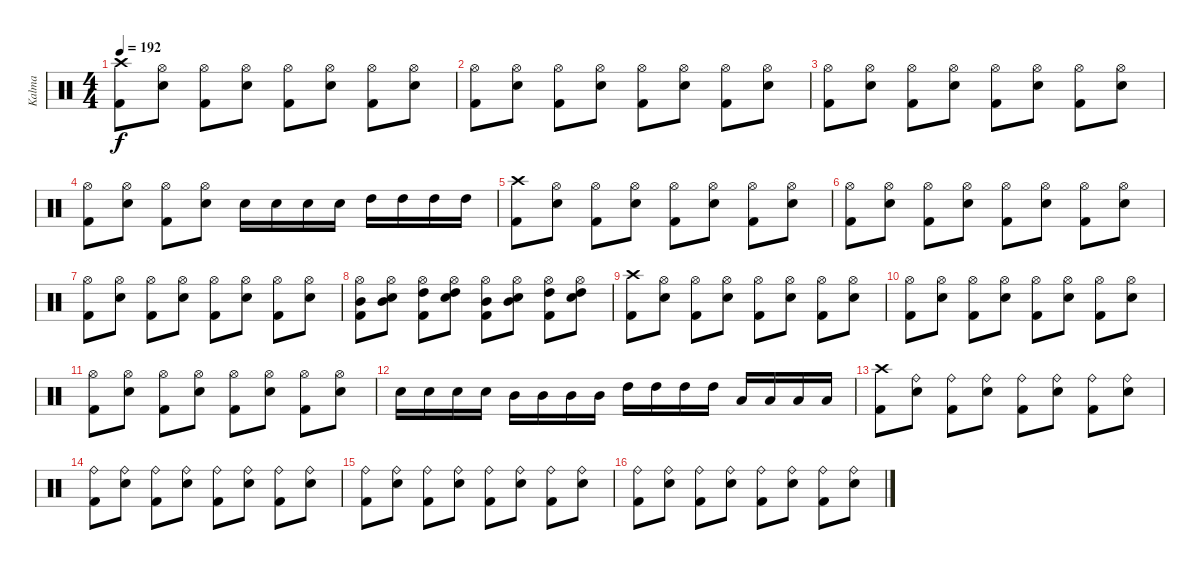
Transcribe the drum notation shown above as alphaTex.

\track ("Kalma" "Kalma") {instrument percussion}
\staff {score}
\articulation defaults
\ts (4 4)
\tempo 192
\clef neutral
\ks c
("Crash high (hit)" "Kick (hit) 2").8{dy f} ("Hi-Hat (open)" "Snare (hit) 2").8 ("Hi-Hat (open)" "Kick (hit) 2").8 ("Hi-Hat (open)" "Snare (hit) 2").8 ("Hi-Hat (open)" "Kick (hit) 2").8 ("Hi-Hat (open)" "Snare (hit) 2").8 ("Hi-Hat (open)" "Kick (hit) 2").8 ("Hi-Hat (open)" "Snare (hit) 2").8 |
("Hi-Hat (open)" "Kick (hit) 2").8 ("Hi-Hat (open)" "Snare (hit) 2").8 ("Hi-Hat (open)" "Kick (hit) 2").8 ("Hi-Hat (open)" "Snare (hit) 2").8 ("Hi-Hat (open)" "Kick (hit) 2").8 ("Hi-Hat (open)" "Snare (hit) 2").8 ("Hi-Hat (open)" "Kick (hit) 2").8 ("Hi-Hat (open)" "Snare (hit) 2").8 |
("Hi-Hat (open)" "Kick (hit) 2").8 ("Hi-Hat (open)" "Snare (hit) 2").8 ("Hi-Hat (open)" "Kick (hit) 2").8 ("Hi-Hat (open)" "Snare (hit) 2").8 ("Hi-Hat (open)" "Kick (hit) 2").8 ("Hi-Hat (open)" "Snare (hit) 2").8 ("Hi-Hat (open)" "Kick (hit) 2").8 ("Hi-Hat (open)" "Snare (hit) 2").8 |
("Hi-Hat (open)" "Kick (hit) 2").8 ("Hi-Hat (open)" "Snare (hit) 2").8 ("Hi-Hat (open)" "Kick (hit) 2").8 ("Hi-Hat (open)" "Snare (hit) 2").8 "Snare (hit) 2".16 "Snare (hit) 2".16 "Snare (hit) 2".16 "Snare (hit) 2".16 "High Tom (hit)".16 "High Tom (hit)".16 "High Tom (hit)".16 "High Tom (hit)".16 |
("Crash high (hit)" "Kick (hit) 2").8 ("Hi-Hat (open)" "Snare (hit) 2").8 ("Hi-Hat (open)" "Kick (hit) 2").8 ("Hi-Hat (open)" "Snare (hit) 2").8 ("Hi-Hat (open)" "Kick (hit) 2").8 ("Hi-Hat (open)" "Snare (hit) 2").8 ("Hi-Hat (open)" "Kick (hit) 2").8 ("Hi-Hat (open)" "Snare (hit) 2").8 |
("Hi-Hat (open)" "Kick (hit) 2").8 ("Hi-Hat (open)" "Snare (hit) 2").8 ("Hi-Hat (open)" "Kick (hit) 2").8 ("Hi-Hat (open)" "Snare (hit) 2").8 ("Hi-Hat (open)" "Kick (hit) 2").8 ("Hi-Hat (open)" "Snare (hit) 2").8 ("Hi-Hat (open)" "Kick (hit) 2").8 ("Hi-Hat (open)" "Snare (hit) 2").8 |
("Hi-Hat (open)" "Kick (hit) 2").8 ("Hi-Hat (open)" "Snare (hit) 2").8 ("Hi-Hat (open)" "Kick (hit) 2").8 ("Hi-Hat (open)" "Snare (hit) 2").8 ("Hi-Hat (open)" "Kick (hit) 2").8 ("Hi-Hat (open)" "Snare (hit) 2").8 ("Hi-Hat (open)" "Kick (hit) 2").8 ("Hi-Hat (open)" "Snare (hit) 2").8 |
("Mid Tom (hit)" "Hi-Hat (open)" "Kick (hit) 2").8 ("Mid Tom (hit)" "Hi-Hat (open)" "Snare (hit) 2").8 ("High Tom (hit)" "Hi-Hat (open)" "Kick (hit) 2").8 ("High Tom (hit)" "Hi-Hat (open)" "Snare (hit) 2").8 ("Mid Tom (hit)" "Hi-Hat (open)" "Kick (hit) 2").8 ("Mid Tom (hit)" "Hi-Hat (open)" "Snare (hit) 2").8 ("High Tom (hit)" "Hi-Hat (open)" "Kick (hit) 2").8 ("High Tom (hit)" "Hi-Hat (open)" "Snare (hit) 2").8 |
("Crash high (hit)" "Kick (hit) 2").8 ("Hi-Hat (open)" "Snare (hit) 2").8 ("Hi-Hat (open)" "Kick (hit) 2").8 ("Hi-Hat (open)" "Snare (hit) 2").8 ("Hi-Hat (open)" "Kick (hit) 2").8 ("Hi-Hat (open)" "Snare (hit) 2").8 ("Hi-Hat (open)" "Kick (hit) 2").8 ("Hi-Hat (open)" "Snare (hit) 2").8 |
("Hi-Hat (open)" "Kick (hit) 2").8 ("Hi-Hat (open)" "Snare (hit) 2").8 ("Hi-Hat (open)" "Kick (hit) 2").8 ("Hi-Hat (open)" "Snare (hit) 2").8 ("Hi-Hat (open)" "Kick (hit) 2").8 ("Hi-Hat (open)" "Snare (hit) 2").8 ("Hi-Hat (open)" "Kick (hit) 2").8 ("Hi-Hat (open)" "Snare (hit) 2").8 |
("Hi-Hat (open)" "Kick (hit) 2").8 ("Hi-Hat (open)" "Snare (hit) 2").8 ("Hi-Hat (open)" "Kick (hit) 2").8 ("Hi-Hat (open)" "Snare (hit) 2").8 ("Hi-Hat (open)" "Kick (hit) 2").8 ("Hi-Hat (open)" "Snare (hit) 2").8 ("Hi-Hat (open)" "Kick (hit) 2").8 ("Hi-Hat (open)" "Snare (hit) 2").8 |
"Snare (hit) 2".16 "Snare (hit) 2".16 "Snare (hit) 2".16 "Snare (hit) 2".16 "Mid Tom (hit)".16 "Mid Tom (hit)".16 "Mid Tom (hit)".16 "Mid Tom (hit)".16 "High Tom (hit)".16 "High Tom (hit)".16 "High Tom (hit)".16 "High Tom (hit)".16 "Low Floor Tom (hit)".16 "Low Floor Tom (hit)".16 "Low Floor Tom (hit)".16 "Low Floor Tom (hit)".16 |
("Crash high (hit)" "Kick (hit) 2").8 ("Ride (bell)" "Snare (hit) 2").8 ("Ride (bell)" "Kick (hit) 2").8 ("Ride (bell)" "Snare (hit) 2").8 ("Ride (bell)" "Kick (hit) 2").8 ("Ride (bell)" "Snare (hit) 2").8 ("Ride (bell)" "Kick (hit) 2").8 ("Ride (bell)" "Snare (hit) 2").8 |
("Ride (bell)" "Kick (hit) 2").8 ("Ride (bell)" "Snare (hit) 2").8 ("Ride (bell)" "Kick (hit) 2").8 ("Ride (bell)" "Snare (hit) 2").8 ("Ride (bell)" "Kick (hit) 2").8 ("Ride (bell)" "Snare (hit) 2").8 ("Ride (bell)" "Kick (hit) 2").8 ("Ride (bell)" "Snare (hit) 2").8 |
("Ride (bell)" "Kick (hit) 2").8 ("Ride (bell)" "Snare (hit) 2").8 ("Ride (bell)" "Kick (hit) 2").8 ("Ride (bell)" "Snare (hit) 2").8 ("Ride (bell)" "Kick (hit) 2").8 ("Ride (bell)" "Snare (hit) 2").8 ("Ride (bell)" "Kick (hit) 2").8 ("Ride (bell)" "Snare (hit) 2").8 |
("Ride (bell)" "Kick (hit) 2").8 ("Ride (bell)" "Snare (hit) 2").8 ("Ride (bell)" "Kick (hit) 2").8 ("Ride (bell)" "Snare (hit) 2").8 ("Ride (bell)" "Kick (hit) 2").8 ("Ride (bell)" "Snare (hit) 2").8 ("Ride (bell)" "Kick (hit) 2").8 ("Ride (bell)" "Snare (hit) 2").8
